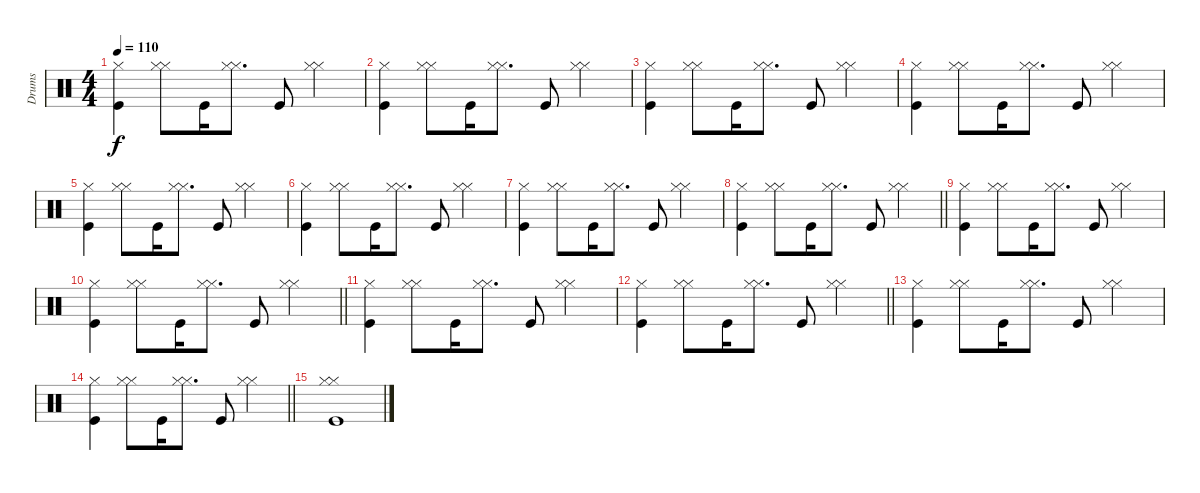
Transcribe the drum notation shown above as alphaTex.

\track ("Drums" "Drums") {instrument percussion}
\staff {score}
\articulation defaults
\ts (4 4)
\tempo 110
\clef neutral
\ks c
("Hi-Hat (closed)" "Kick (hit)").4{dy f} ("Hi-Hat (closed)" "Hi-Hat (closed)").8 "Kick (hit)".16 ("Hi-Hat (closed)" "Hi-Hat (closed)").8{d} "Kick (hit)".8 ("Hi-Hat (closed)" "Hi-Hat (closed)").4 |
("Hi-Hat (closed)" "Kick (hit)").4 ("Hi-Hat (closed)" "Hi-Hat (closed)").8 "Kick (hit)".16 ("Hi-Hat (closed)" "Hi-Hat (closed)").8{d} "Kick (hit)".8 ("Hi-Hat (closed)" "Hi-Hat (closed)").4 |
("Hi-Hat (closed)" "Kick (hit)").4 ("Hi-Hat (closed)" "Hi-Hat (closed)").8 "Kick (hit)".16 ("Hi-Hat (closed)" "Hi-Hat (closed)").8{d} "Kick (hit)".8 ("Hi-Hat (closed)" "Hi-Hat (closed)").4 |
("Hi-Hat (closed)" "Kick (hit)").4 ("Hi-Hat (closed)" "Hi-Hat (closed)").8 "Kick (hit)".16 ("Hi-Hat (closed)" "Hi-Hat (closed)").8{d} "Kick (hit)".8 ("Hi-Hat (closed)" "Hi-Hat (closed)").4 |
("Hi-Hat (closed)" "Kick (hit)").4 ("Hi-Hat (closed)" "Hi-Hat (closed)").8 "Kick (hit)".16 ("Hi-Hat (closed)" "Hi-Hat (closed)").8{d} "Kick (hit)".8 ("Hi-Hat (closed)" "Hi-Hat (closed)").4 |
("Hi-Hat (closed)" "Kick (hit)").4 ("Hi-Hat (closed)" "Hi-Hat (closed)").8 "Kick (hit)".16 ("Hi-Hat (closed)" "Hi-Hat (closed)").8{d} "Kick (hit)".8 ("Hi-Hat (closed)" "Hi-Hat (closed)").4 |
("Hi-Hat (closed)" "Kick (hit)").4 ("Hi-Hat (closed)" "Hi-Hat (closed)").8 "Kick (hit)".16 ("Hi-Hat (closed)" "Hi-Hat (closed)").8{d} "Kick (hit)".8 ("Hi-Hat (closed)" "Hi-Hat (closed)").4 |
\barLineRight lightlight
("Hi-Hat (closed)" "Kick (hit)").4 ("Hi-Hat (closed)" "Hi-Hat (closed)").8 "Kick (hit)".16 ("Hi-Hat (closed)" "Hi-Hat (closed)").8{d} "Kick (hit)".8 ("Hi-Hat (closed)" "Hi-Hat (closed)").4 |
("Hi-Hat (closed)" "Kick (hit)").4 ("Hi-Hat (closed)" "Hi-Hat (closed)").8 "Kick (hit)".16 ("Hi-Hat (closed)" "Hi-Hat (closed)").8{d} "Kick (hit)".8 ("Hi-Hat (closed)" "Hi-Hat (closed)").4 |
\barLineRight lightlight
("Hi-Hat (closed)" "Kick (hit)").4 ("Hi-Hat (closed)" "Hi-Hat (closed)").8 "Kick (hit)".16 ("Hi-Hat (closed)" "Hi-Hat (closed)").8{d} "Kick (hit)".8 ("Hi-Hat (closed)" "Hi-Hat (closed)").4 |
("Hi-Hat (closed)" "Kick (hit)").4 ("Hi-Hat (closed)" "Hi-Hat (closed)").8 "Kick (hit)".16 ("Hi-Hat (closed)" "Hi-Hat (closed)").8{d} "Kick (hit)".8 ("Hi-Hat (closed)" "Hi-Hat (closed)").4 |
\barLineRight lightlight
("Hi-Hat (closed)" "Kick (hit)").4 ("Hi-Hat (closed)" "Hi-Hat (closed)").8 "Kick (hit)".16 ("Hi-Hat (closed)" "Hi-Hat (closed)").8{d} "Kick (hit)".8 ("Hi-Hat (closed)" "Hi-Hat (closed)").4 |
("Hi-Hat (closed)" "Kick (hit)").4 ("Hi-Hat (closed)" "Hi-Hat (closed)").8 "Kick (hit)".16 ("Hi-Hat (closed)" "Hi-Hat (closed)").8{d} "Kick (hit)".8 ("Hi-Hat (closed)" "Hi-Hat (closed)").4 |
\barLineRight lightlight
("Hi-Hat (closed)" "Kick (hit)").4 ("Hi-Hat (closed)" "Hi-Hat (closed)").8 "Kick (hit)".16 ("Hi-Hat (closed)" "Hi-Hat (closed)").8{d} "Kick (hit)".8 ("Hi-Hat (closed)" "Hi-Hat (closed)").4 |
("Hi-Hat (closed)" "Hi-Hat (closed)" "Kick (hit)").1
